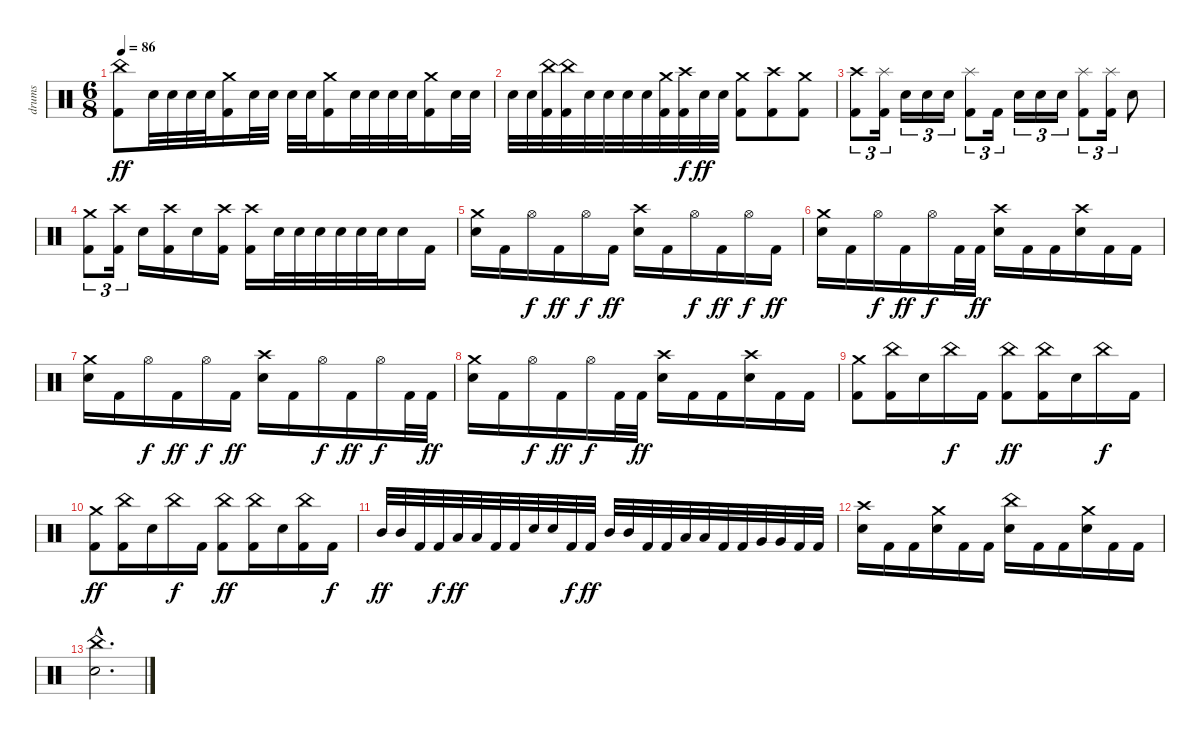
\track ("drums" "drums") {instrument percussion}
\staff {score}
\articulation defaults
\ts (6 8)
\tempo 86
\clef neutral
\ks c
("China (hit)" "Kick (hit) 2").8{dy ff} "Snare (hit) 2".32 "Snare (hit) 2".32 "Snare (hit) 2".32 "Snare (hit) 2".32 ("Crash medium (hit)" "Kick (hit) 2").16 "Snare (hit) 2".32 "Snare (hit) 2".32 "Snare (hit) 2".32 "Snare (hit) 2".32 ("Crash medium (hit)" "Kick (hit) 2").16 "Snare (hit) 2".32 "Snare (hit) 2".32 "Snare (hit) 2".32 "Snare (hit) 2".32 ("Crash medium (hit)" "Kick (hit) 2").16 "Snare (hit) 2".32 "Snare (hit) 2".32 |
"Snare (hit) 2".32 "Snare (hit) 2".32 ("China (hit)" "Kick (hit) 2").32 ("China (hit)" "Kick (hit) 2").32 "Snare (hit) 2".32 "Snare (hit) 2".32 "Snare (hit) 2".32 "Snare (hit) 2".32 ("Crash medium (hit)" "Kick (hit) 2").32 ("Crash high (hit)" "Kick (hit) 2").32{dy f} "Snare (hit) 2".32{dy ff} "Snare (hit) 2".32 ("Crash medium (hit)" "Kick (hit) 2").8 ("Crash high (hit)" "Kick (hit) 2").8 ("Crash medium (hit)" "Kick (hit) 2").8 |
("Crash high (hit)" "Kick (hit) 2").8{tu (3 2)} ("Splash (hit)" "Kick (hit) 2").16{tu (3 2)} "Snare (hit) 2".16{tu (3 2)} "Snare (hit) 2".16{tu (3 2)} "Snare (hit) 2".16{tu (3 2)} ("Splash (hit)" "Kick (hit) 2").8{tu (3 2)} "Kick (hit) 2".16{tu (3 2)} "Snare (hit) 2".16{tu (3 2)} "Snare (hit) 2".16{tu (3 2)} "Snare (hit) 2".16{tu (3 2)} ("Splash (hit)" "Kick (hit) 2").8{tu (3 2)} ("Splash (hit)" "Kick (hit) 2").16{tu (3 2)} "Snare (hit) 2".8 |
("Crash medium (hit)" "Kick (hit) 2").8{tu (3 2)} ("Crash high (hit)" "Kick (hit) 2").16{tu (3 2)} "Snare (hit) 2".16 ("Crash high (hit)" "Kick (hit) 2").16 "Snare (hit) 2".16 ("Crash high (hit)" "Kick (hit) 2").16 ("Crash high (hit)" "Kick (hit) 2").16 "Snare (hit) 2".32 "Snare (hit) 2".32 "Snare (hit) 2".32 "Snare (hit) 2".32 "Snare (hit) 2".32 "Snare (hit) 2".32 "Snare (hit) 2".16 "Kick (hit) 2".16 |
("Crash medium (hit)" "Snare (hit) 2").16 "Kick (hit) 2".16 "Hi-Hat (open)".16{dy f} "Kick (hit) 2".16{dy ff} "Hi-Hat (open)".16{dy f} "Kick (hit) 2".16{dy ff} ("Crash high (hit)" "Snare (hit) 2").16 "Kick (hit) 2".16 "Hi-Hat (open)".16{dy f} "Kick (hit) 2".16{dy ff} "Hi-Hat (open)".16{dy f} "Kick (hit) 2".16{dy ff} |
("Crash medium (hit)" "Snare (hit) 2").16 "Kick (hit) 2".16 "Hi-Hat (open)".16{dy f} "Kick (hit) 2".16{dy ff} "Hi-Hat (open)".16{dy f} "Kick (hit) 2".32 "Kick (hit) 2".32{dy ff} ("Crash high (hit)" "Snare (hit) 2").16 "Kick (hit) 2".16 "Kick (hit) 2".16 ("Crash high (hit)" "Snare (hit) 2").16 "Kick (hit) 2".16 "Kick (hit) 2".16 |
("Crash medium (hit)" "Snare (hit) 2").16 "Kick (hit) 2".16 "Hi-Hat (open)".16{dy f} "Kick (hit) 2".16{dy ff} "Hi-Hat (open)".16{dy f} "Kick (hit) 2".16{dy ff} ("Crash high (hit)" "Snare (hit) 2").16 "Kick (hit) 2".16 "Hi-Hat (open)".16{dy f} "Kick (hit) 2".16{dy ff} "Hi-Hat (open)".16{dy f} "Kick (hit) 2".32 "Kick (hit) 2".32{dy ff} |
("Crash medium (hit)" "Snare (hit) 2").16 "Kick (hit) 2".16 "Hi-Hat (open)".16{dy f} "Kick (hit) 2".16{dy ff} "Hi-Hat (open)".16{dy f} "Kick (hit) 2".32 "Kick (hit) 2".32{dy ff} ("Crash high (hit)" "Snare (hit) 2").16 "Kick (hit) 2".16 "Kick (hit) 2".16 ("Crash high (hit)" "Snare (hit) 2").16 "Kick (hit) 2".16 "Kick (hit) 2".16 |
("Crash medium (hit)" "Kick (hit) 2").8 ("China (hit)" "Kick (hit) 2").16 "Snare (hit) 2".16 "China (hit)".16{dy f} "Kick (hit) 2".16 ("China (hit)" "Kick (hit) 2").8{dy ff} ("China (hit)" "Kick (hit) 2").16 "Snare (hit) 2".16 "China (hit)".16{dy f} "Kick (hit) 2".16 |
("Crash medium (hit)" "Kick (hit) 2").8{dy ff} ("China (hit)" "Kick (hit) 2").16 "Snare (hit) 2".16 "China (hit)".16{dy f} "Kick (hit) 2".16 ("China (hit)" "Kick (hit) 2").8{dy ff} ("China (hit)" "Kick (hit) 2").16 "Snare (hit) 2".16 ("China (hit)" "Kick (hit) 2").16 "Kick (hit) 2".16{dy f} |
"Mid Tom (hit)".32{dy ff} "Mid Tom (hit)".32 "Kick (hit) 2".32 "Kick (hit) 2".32{dy f} "Low Tom (hit)".32{dy ff} "Low Tom (hit)".32 "Kick (hit) 2".32 "Kick (hit) 2".32 "Snare (hit) 2".32 "Snare (hit) 2".32 "Kick (hit) 2".32{dy f} "Kick (hit) 2".32{dy ff} "Mid Tom (hit)".32 "Mid Tom (hit)".32 "Kick (hit) 2".32 "Kick (hit) 2".32 "Low Tom (hit)".32 "Low Tom (hit)".32 "Kick (hit) 2".32 "Kick (hit) 2".32 "Very Low Tom (hit)".32 "Very Low Tom (hit)".32 "Kick (hit) 2".32 "Kick (hit) 2".32 |
("Crash high (hit)" "Snare (hit) 2").16 "Kick (hit) 2".16 "Kick (hit) 2".16 ("Crash medium (hit)" "Snare (hit) 2").16 "Kick (hit) 2".16 "Kick (hit) 2".16 ("China (hit)" "Snare (hit) 2").16 "Kick (hit) 2".16 "Kick (hit) 2".16 ("Crash medium (hit)" "Snare (hit) 2").16 "Kick (hit) 2".16 "Kick (hit) 2".16 |
("China (hit)"{hac} "Snare (hit) 2"{hac}).2{d}
